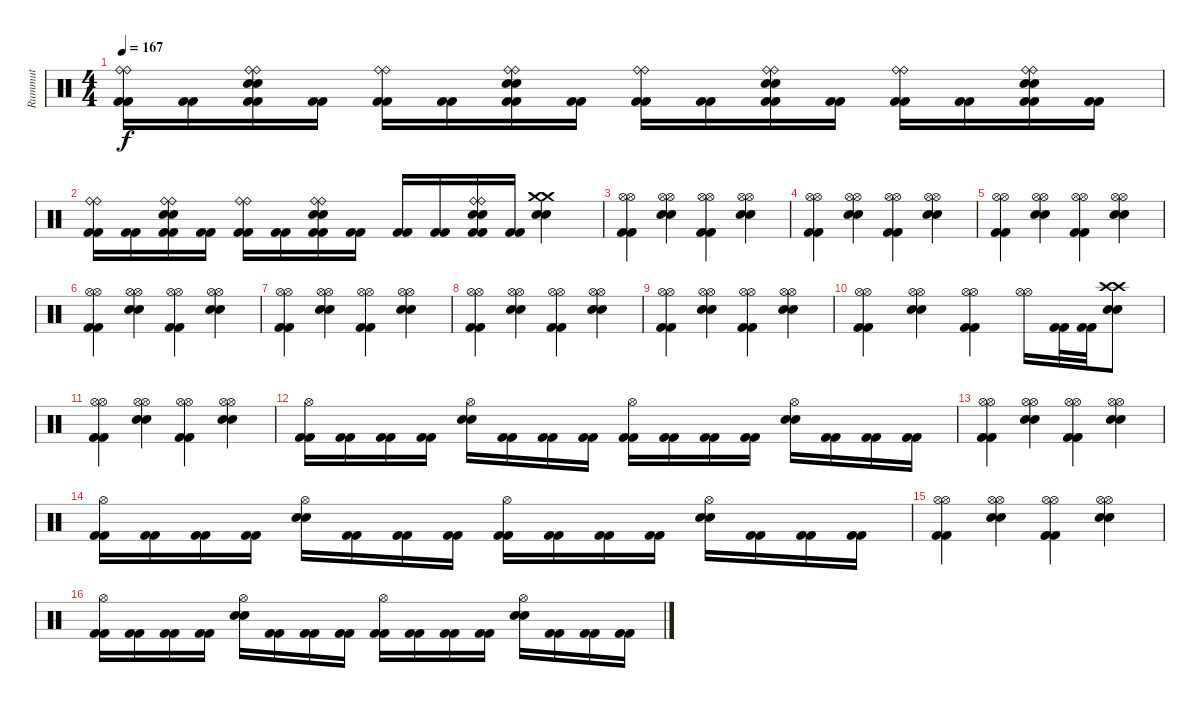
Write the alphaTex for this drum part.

\track ("Rummut" "Rummut") {instrument percussion}
\staff {score}
\articulation defaults
\ts (4 4)
\tempo 167
\clef neutral
\ks c
("Kick (hit) 2" "Kick (hit) 2" "Ride (bell)" "Ride (bell)").16{dy f} ("Kick (hit) 2" "Kick (hit) 2").16 ("Kick (hit) 2" "Kick (hit) 2" "Snare (hit) 2" "Snare (hit) 2" "Ride (bell)" "Ride (bell)").16 ("Kick (hit) 2" "Kick (hit) 2").16 ("Kick (hit) 2" "Kick (hit) 2" "Ride (bell)" "Ride (bell)").16 ("Kick (hit) 2" "Kick (hit) 2").16 ("Kick (hit) 2" "Kick (hit) 2" "Snare (hit) 2" "Snare (hit) 2" "Ride (bell)" "Ride (bell)").16 ("Kick (hit) 2" "Kick (hit) 2").16 ("Kick (hit) 2" "Kick (hit) 2" "Ride (bell)" "Ride (bell)").16 ("Kick (hit) 2" "Kick (hit) 2").16 ("Kick (hit) 2" "Kick (hit) 2" "Snare (hit) 2" "Snare (hit) 2" "Ride (bell)" "Ride (bell)").16 ("Kick (hit) 2" "Kick (hit) 2").16 ("Kick (hit) 2" "Kick (hit) 2" "Ride (bell)" "Ride (bell)").16 ("Kick (hit) 2" "Kick (hit) 2").16 ("Kick (hit) 2" "Kick (hit) 2" "Snare (hit) 2" "Snare (hit) 2" "Ride (bell)" "Ride (bell)").16 ("Kick (hit) 2" "Kick (hit) 2").16 |
("Kick (hit) 2" "Kick (hit) 2" "Ride (bell)" "Ride (bell)").16 ("Kick (hit) 2" "Kick (hit) 2").16 ("Kick (hit) 2" "Kick (hit) 2" "Snare (hit) 2" "Snare (hit) 2" "Ride (bell)" "Ride (bell)").16 ("Kick (hit) 2" "Kick (hit) 2").16 ("Kick (hit) 2" "Kick (hit) 2" "Ride (bell)" "Ride (bell)").16 ("Kick (hit) 2" "Kick (hit) 2").16 ("Kick (hit) 2" "Kick (hit) 2" "Snare (hit) 2" "Snare (hit) 2" "Ride (bell)" "Ride (bell)").16 ("Kick (hit) 2" "Kick (hit) 2").16 ("Kick (hit) 2" "Kick (hit) 2").16 ("Kick (hit) 2" "Kick (hit) 2").16 ("Kick (hit) 2" "Kick (hit) 2" "Snare (hit) 2" "Snare (hit) 2" "Ride (bell)" "Ride (bell)").16 ("Kick (hit) 2" "Kick (hit) 2").16 ("Snare (hit) 2" "Snare (hit) 2" "Crash medium (hit)" "Crash medium (hit)").4 |
("Hi-Hat (open)" "Kick (hit) 2" "Kick (hit) 2" "Hi-Hat (open)").4 ("Hi-Hat (open)" "Snare (hit) 2" "Snare (hit) 2" "Hi-Hat (open)").4 ("Hi-Hat (open)" "Kick (hit) 2" "Kick (hit) 2" "Hi-Hat (open)").4 ("Hi-Hat (open)" "Snare (hit) 2" "Snare (hit) 2" "Hi-Hat (open)").4 |
("Hi-Hat (open)" "Kick (hit) 2" "Kick (hit) 2" "Hi-Hat (open)").4 ("Hi-Hat (open)" "Snare (hit) 2" "Snare (hit) 2" "Hi-Hat (open)").4 ("Hi-Hat (open)" "Kick (hit) 2" "Kick (hit) 2" "Hi-Hat (open)").4 ("Hi-Hat (open)" "Snare (hit) 2" "Snare (hit) 2" "Hi-Hat (open)").4 |
("Hi-Hat (open)" "Kick (hit) 2" "Kick (hit) 2" "Hi-Hat (open)").4 ("Hi-Hat (open)" "Snare (hit) 2" "Snare (hit) 2" "Hi-Hat (open)").4 ("Hi-Hat (open)" "Kick (hit) 2" "Kick (hit) 2" "Hi-Hat (open)").4 ("Hi-Hat (open)" "Snare (hit) 2" "Snare (hit) 2" "Hi-Hat (open)").4 |
("Hi-Hat (open)" "Kick (hit) 2" "Kick (hit) 2" "Hi-Hat (open)").4 ("Hi-Hat (open)" "Snare (hit) 2" "Snare (hit) 2" "Hi-Hat (open)").4 ("Hi-Hat (open)" "Kick (hit) 2" "Kick (hit) 2" "Hi-Hat (open)").4 ("Hi-Hat (open)" "Snare (hit) 2" "Snare (hit) 2" "Hi-Hat (open)").4 |
("Hi-Hat (open)" "Kick (hit) 2" "Kick (hit) 2" "Hi-Hat (open)").4 ("Hi-Hat (open)" "Snare (hit) 2" "Snare (hit) 2" "Hi-Hat (open)").4 ("Hi-Hat (open)" "Kick (hit) 2" "Kick (hit) 2" "Hi-Hat (open)").4 ("Hi-Hat (open)" "Snare (hit) 2" "Snare (hit) 2" "Hi-Hat (open)").4 |
("Hi-Hat (open)" "Kick (hit) 2" "Kick (hit) 2" "Hi-Hat (open)").4 ("Hi-Hat (open)" "Snare (hit) 2" "Snare (hit) 2" "Hi-Hat (open)").4 ("Hi-Hat (open)" "Kick (hit) 2" "Kick (hit) 2" "Hi-Hat (open)").4 ("Hi-Hat (open)" "Snare (hit) 2" "Snare (hit) 2" "Hi-Hat (open)").4 |
("Hi-Hat (open)" "Kick (hit) 2" "Kick (hit) 2" "Hi-Hat (open)").4 ("Hi-Hat (open)" "Snare (hit) 2" "Snare (hit) 2" "Hi-Hat (open)").4 ("Hi-Hat (open)" "Kick (hit) 2" "Kick (hit) 2" "Hi-Hat (open)").4 ("Hi-Hat (open)" "Snare (hit) 2" "Snare (hit) 2" "Hi-Hat (open)").4 |
("Hi-Hat (open)" "Kick (hit) 2" "Kick (hit) 2" "Hi-Hat (open)").4 ("Hi-Hat (open)" "Snare (hit) 2" "Snare (hit) 2" "Hi-Hat (open)").4 ("Hi-Hat (open)" "Kick (hit) 2" "Kick (hit) 2" "Hi-Hat (open)").4 ("Hi-Hat (open)" "Hi-Hat (open)").16 ("Kick (hit) 2" "Kick (hit) 2").32 ("Kick (hit) 2" "Kick (hit) 2").32 ("Snare (hit) 2" "Snare (hit) 2" "Crash high (hit)" "Crash high (hit)").8 |
("Hi-Hat (open)" "Kick (hit) 2" "Kick (hit) 2" "Hi-Hat (open)").4 ("Hi-Hat (open)" "Snare (hit) 2" "Snare (hit) 2" "Hi-Hat (open)").4 ("Hi-Hat (open)" "Kick (hit) 2" "Kick (hit) 2" "Hi-Hat (open)").4 ("Hi-Hat (open)" "Snare (hit) 2" "Snare (hit) 2" "Hi-Hat (open)").4 |
("Hi-Hat (open)" "Kick (hit) 2" "Kick (hit) 2").16 ("Kick (hit) 2" "Kick (hit) 2").16 ("Kick (hit) 2" "Kick (hit) 2").16 ("Kick (hit) 2" "Kick (hit) 2").16 ("Hi-Hat (open)" "Snare (hit) 2" "Snare (hit) 2").16 ("Kick (hit) 2" "Kick (hit) 2").16 ("Kick (hit) 2" "Kick (hit) 2").16 ("Kick (hit) 2" "Kick (hit) 2").16 ("Hi-Hat (open)" "Kick (hit) 2" "Kick (hit) 2").16 ("Kick (hit) 2" "Kick (hit) 2").16 ("Kick (hit) 2" "Kick (hit) 2").16 ("Kick (hit) 2" "Kick (hit) 2").16 ("Hi-Hat (open)" "Snare (hit) 2" "Snare (hit) 2").16 ("Kick (hit) 2" "Kick (hit) 2").16 ("Kick (hit) 2" "Kick (hit) 2").16 ("Kick (hit) 2" "Kick (hit) 2").16 |
("Hi-Hat (open)" "Kick (hit) 2" "Kick (hit) 2" "Hi-Hat (open)").4 ("Hi-Hat (open)" "Snare (hit) 2" "Snare (hit) 2" "Hi-Hat (open)").4 ("Hi-Hat (open)" "Kick (hit) 2" "Kick (hit) 2" "Hi-Hat (open)").4 ("Hi-Hat (open)" "Snare (hit) 2" "Snare (hit) 2" "Hi-Hat (open)").4 |
("Hi-Hat (open)" "Kick (hit) 2" "Kick (hit) 2").16 ("Kick (hit) 2" "Kick (hit) 2").16 ("Kick (hit) 2" "Kick (hit) 2").16 ("Kick (hit) 2" "Kick (hit) 2").16 ("Hi-Hat (open)" "Snare (hit) 2" "Snare (hit) 2").16 ("Kick (hit) 2" "Kick (hit) 2").16 ("Kick (hit) 2" "Kick (hit) 2").16 ("Kick (hit) 2" "Kick (hit) 2").16 ("Hi-Hat (open)" "Kick (hit) 2" "Kick (hit) 2").16 ("Kick (hit) 2" "Kick (hit) 2").16 ("Kick (hit) 2" "Kick (hit) 2").16 ("Kick (hit) 2" "Kick (hit) 2").16 ("Hi-Hat (open)" "Snare (hit) 2" "Snare (hit) 2").16 ("Kick (hit) 2" "Kick (hit) 2").16 ("Kick (hit) 2" "Kick (hit) 2").16 ("Kick (hit) 2" "Kick (hit) 2").16 |
("Hi-Hat (open)" "Kick (hit) 2" "Kick (hit) 2" "Hi-Hat (open)").4 ("Hi-Hat (open)" "Snare (hit) 2" "Snare (hit) 2" "Hi-Hat (open)").4 ("Hi-Hat (open)" "Kick (hit) 2" "Kick (hit) 2" "Hi-Hat (open)").4 ("Hi-Hat (open)" "Snare (hit) 2" "Snare (hit) 2" "Hi-Hat (open)").4 |
("Hi-Hat (open)" "Kick (hit) 2" "Kick (hit) 2").16 ("Kick (hit) 2" "Kick (hit) 2").16 ("Kick (hit) 2" "Kick (hit) 2").16 ("Kick (hit) 2" "Kick (hit) 2").16 ("Hi-Hat (open)" "Snare (hit) 2" "Snare (hit) 2").16 ("Kick (hit) 2" "Kick (hit) 2").16 ("Kick (hit) 2" "Kick (hit) 2").16 ("Kick (hit) 2" "Kick (hit) 2").16 ("Hi-Hat (open)" "Kick (hit) 2" "Kick (hit) 2").16 ("Kick (hit) 2" "Kick (hit) 2").16 ("Kick (hit) 2" "Kick (hit) 2").16 ("Kick (hit) 2" "Kick (hit) 2").16 ("Hi-Hat (open)" "Snare (hit) 2" "Snare (hit) 2").16 ("Kick (hit) 2" "Kick (hit) 2").16 ("Kick (hit) 2" "Kick (hit) 2").16 ("Kick (hit) 2" "Kick (hit) 2").16
